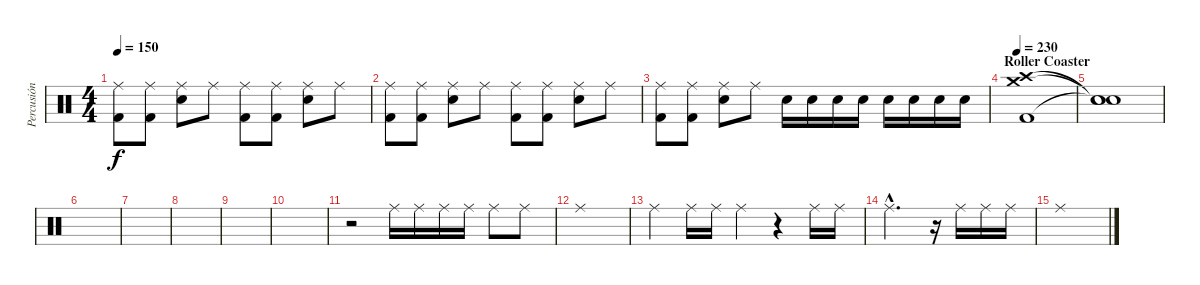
\track ("Percusión" "Percusión") {instrument percussion}
\staff {score}
\articulation defaults
\ts (4 4)
\tempo 150
\clef neutral
\ks c
("Ride (middle)" "Kick (hit) 2").8{dy f} ("Ride (middle)" "Kick (hit) 2").8 ("Ride (middle)" "Electric Snare (hit)").8 "Ride (middle)".8 ("Ride (middle)" "Kick (hit) 2").8 ("Ride (middle)" "Kick (hit) 2").8 ("Ride (middle)" "Electric Snare (hit)").8 "Ride (middle)".8 |
("Ride (middle)" "Kick (hit) 2").8 ("Ride (middle)" "Kick (hit) 2").8 ("Ride (middle)" "Electric Snare (hit)").8 "Ride (middle)".8 ("Ride (middle)" "Kick (hit) 2").8 ("Ride (middle)" "Kick (hit) 2").8 ("Ride (middle)" "Electric Snare (hit)").8 "Ride (middle)".8 |
("Ride (middle)" "Kick (hit) 2").8 ("Ride (middle)" "Kick (hit) 2").8 ("Ride (middle)" "Electric Snare (hit)").8 "Ride (middle)".8 "Electric Snare (hit)".16 "Electric Snare (hit)".16 "Electric Snare (hit)".16 "Electric Snare (hit)".16 "Electric Snare (hit)".16 "Electric Snare (hit)".16 "Electric Snare (hit)".16 "Electric Snare (hit)".16 |
\section ("" "Roller Coaster")
\tempo 230
("Crash high (hit)" "Crash medium (hit)" "Kick (hit) 2").1 |
("Snare (hit)"{t} "Snare (hit)"{t} "Snare (hit)"{t}).1 |
|
|
|
|
|
r.2 "Ride (middle)".16 "Ride (middle)".16 "Ride (middle)".16 "Ride (middle)".16 "Ride (middle)".8 "Ride (middle)".8 |
"Ride (middle)".1 |
"Ride (middle)".4 "Ride (middle)".16 "Ride (middle)".16 "Ride (middle)".4 r.4 "Ride (middle)".16 "Ride (middle)".16 |
"Ride (middle)"{hac}.2{d} r.16 "Ride (middle)".16 "Ride (middle)".16 "Ride (middle)".16 |
"Ride (middle)".1
